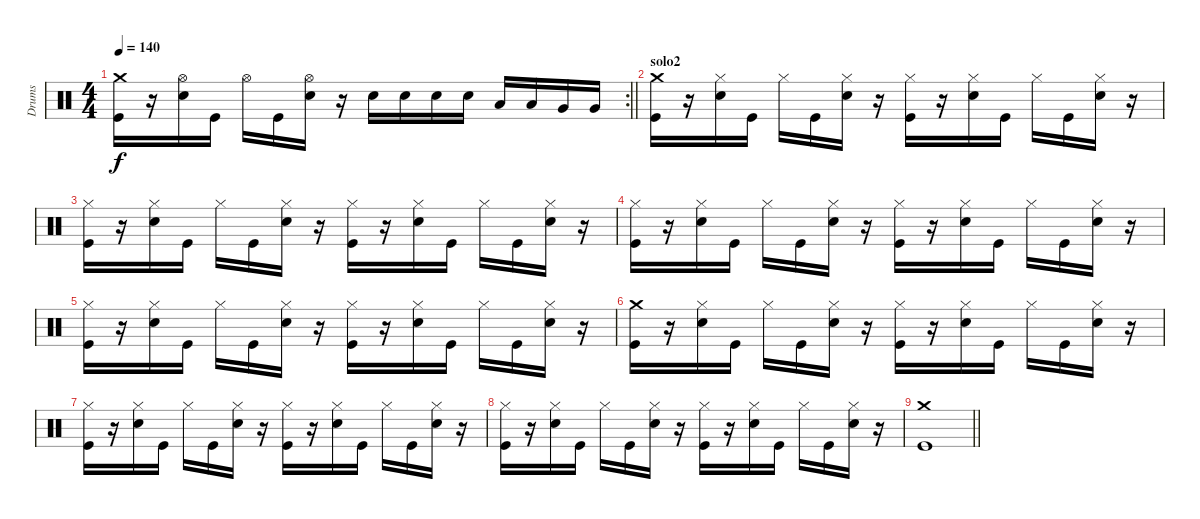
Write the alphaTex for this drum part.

\track ("Drums" "Drums") {instrument percussion}
\staff {score}
\articulation defaults
\rc 2
\ts (4 4)
\tempo 140
\clef neutral
\barLineRight lightlight
\ks c
("Crash medium (hit)" "Kick (hit)").16{dy f} r.16 ("Hi-Hat (open)" "Snare (hit) 2").16 "Kick (hit)".16 "Hi-Hat (open)".16 "Kick (hit)".16 ("Hi-Hat (open)" "Snare (hit) 2").16 r.16 "Snare (hit) 2".16 "Snare (hit) 2".16 "Snare (hit) 2".16 "Snare (hit) 2".16 "Low Tom (hit)".16 "Low Tom (hit)".16 "Very Low Tom (hit)".16 "Very Low Tom (hit)".16 |
\section ("" "solo2")
("Crash medium (hit)" "Kick (hit)").16 r.16 ("Hi-Hat (closed)" "Snare (hit) 2").16 "Kick (hit)".16 "Hi-Hat (closed)".16 "Kick (hit)".16 ("Hi-Hat (closed)" "Snare (hit) 2").16 r.16 ("Hi-Hat (closed)" "Kick (hit)").16 r.16 ("Hi-Hat (closed)" "Snare (hit) 2").16 "Kick (hit)".16 "Hi-Hat (closed)".16 "Kick (hit)".16 ("Hi-Hat (closed)" "Snare (hit) 2").16 r.16 |
("Hi-Hat (closed)" "Kick (hit)").16 r.16 ("Hi-Hat (closed)" "Snare (hit) 2").16 "Kick (hit)".16 "Hi-Hat (closed)".16 "Kick (hit)".16 ("Hi-Hat (closed)" "Snare (hit) 2").16 r.16 ("Hi-Hat (closed)" "Kick (hit)").16 r.16 ("Hi-Hat (closed)" "Snare (hit) 2").16 "Kick (hit)".16 "Hi-Hat (closed)".16 "Kick (hit)".16 ("Hi-Hat (closed)" "Snare (hit) 2").16 r.16 |
("Hi-Hat (closed)" "Kick (hit)").16 r.16 ("Hi-Hat (closed)" "Snare (hit) 2").16 "Kick (hit)".16 "Hi-Hat (closed)".16 "Kick (hit)".16 ("Hi-Hat (closed)" "Snare (hit) 2").16 r.16 ("Hi-Hat (closed)" "Kick (hit)").16 r.16 ("Hi-Hat (closed)" "Snare (hit) 2").16 "Kick (hit)".16 "Hi-Hat (closed)".16 "Kick (hit)".16 ("Hi-Hat (closed)" "Snare (hit) 2").16 r.16 |
("Hi-Hat (closed)" "Kick (hit)").16 r.16 ("Hi-Hat (closed)" "Snare (hit) 2").16 "Kick (hit)".16 "Hi-Hat (closed)".16 "Kick (hit)".16 ("Hi-Hat (closed)" "Snare (hit) 2").16 r.16 ("Hi-Hat (closed)" "Kick (hit)").16 r.16 ("Hi-Hat (closed)" "Snare (hit) 2").16 "Kick (hit)".16 "Hi-Hat (closed)".16 "Kick (hit)".16 ("Hi-Hat (closed)" "Snare (hit) 2").16 r.16 |
("Crash medium (hit)" "Kick (hit)").16 r.16 ("Hi-Hat (closed)" "Snare (hit) 2").16 "Kick (hit)".16 "Hi-Hat (closed)".16 "Kick (hit)".16 ("Hi-Hat (closed)" "Snare (hit) 2").16 r.16 ("Hi-Hat (closed)" "Kick (hit)").16 r.16 ("Hi-Hat (closed)" "Snare (hit) 2").16 "Kick (hit)".16 "Hi-Hat (closed)".16 "Kick (hit)".16 ("Hi-Hat (closed)" "Snare (hit) 2").16 r.16 |
("Hi-Hat (closed)" "Kick (hit)").16 r.16 ("Hi-Hat (closed)" "Snare (hit) 2").16 "Kick (hit)".16 "Hi-Hat (closed)".16 "Kick (hit)".16 ("Hi-Hat (closed)" "Snare (hit) 2").16 r.16 ("Hi-Hat (closed)" "Kick (hit)").16 r.16 ("Hi-Hat (closed)" "Snare (hit) 2").16 "Kick (hit)".16 "Hi-Hat (closed)".16 "Kick (hit)".16 ("Hi-Hat (closed)" "Snare (hit) 2").16 r.16 |
("Hi-Hat (closed)" "Kick (hit)").16 r.16 ("Hi-Hat (closed)" "Snare (hit) 2").16 "Kick (hit)".16 "Hi-Hat (closed)".16 "Kick (hit)".16 ("Hi-Hat (closed)" "Snare (hit) 2").16 r.16 ("Hi-Hat (closed)" "Kick (hit)").16 r.16 ("Hi-Hat (closed)" "Snare (hit) 2").16 "Kick (hit)".16 "Hi-Hat (closed)".16 "Kick (hit)".16 ("Hi-Hat (closed)" "Snare (hit) 2").16 r.16 |
\barLineRight lightlight
("Crash medium (hit)" "Kick (hit)").1
